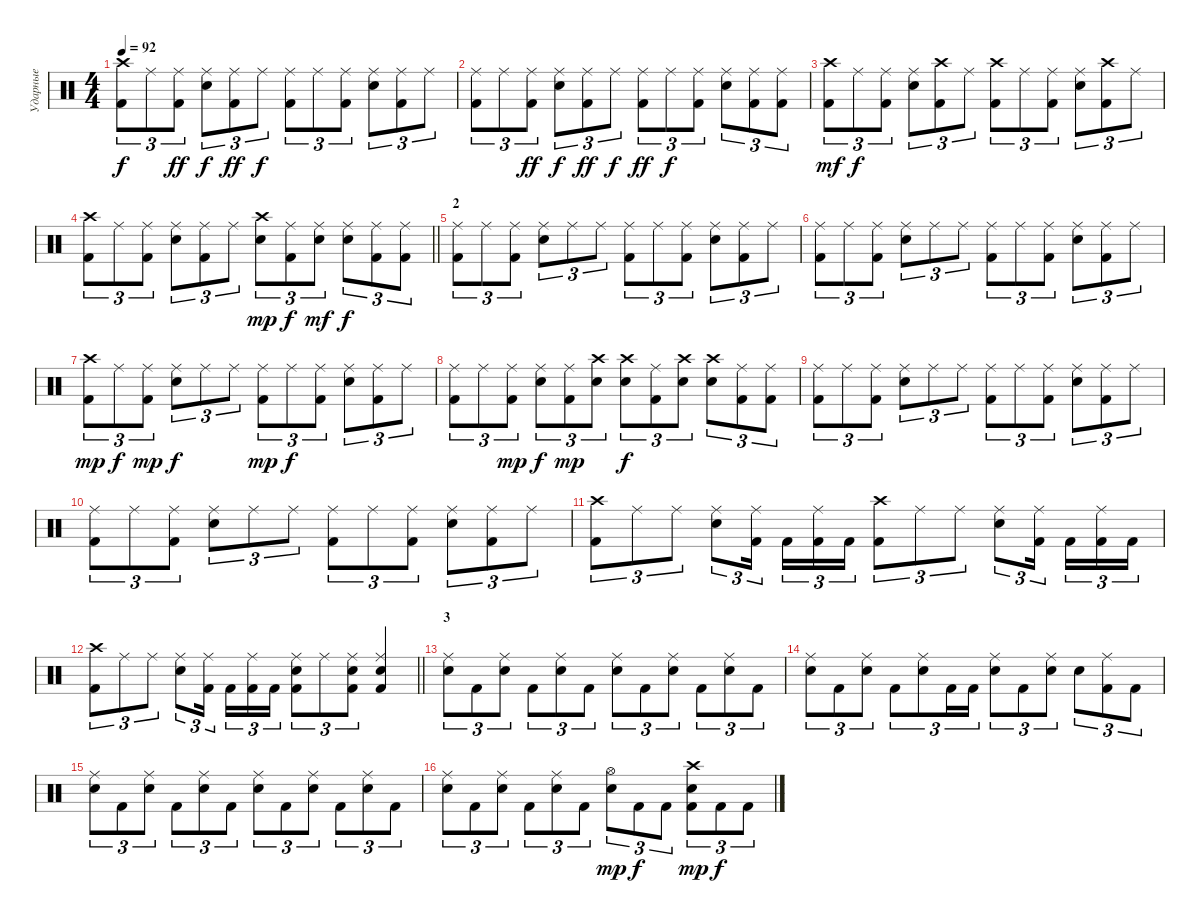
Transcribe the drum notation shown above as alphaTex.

\track ("Ударные" "Ударные") {instrument percussion}
\staff {score}
\articulation defaults
\ts (4 4)
\tempo 92
\clef neutral
\ks c
("Crash high (hit)" "Kick (hit) 2").8{tu (3 2) dy f} "Ride (middle)".8{tu (3 2)} ("Ride (middle)" "Kick (hit) 2").8{tu (3 2) dy ff} ("Ride (middle)" "Electric Snare (hit)").8{tu (3 2) dy f} ("Ride (middle)" "Kick (hit) 2").8{tu (3 2) dy ff} "Ride (middle)".8{tu (3 2) dy f} ("Ride (middle)" "Kick (hit) 2").8{tu (3 2)} "Ride (middle)".8{tu (3 2)} ("Ride (middle)" "Kick (hit) 2").8{tu (3 2)} ("Ride (middle)" "Electric Snare (hit)").8{tu (3 2)} ("Ride (middle)" "Kick (hit) 2").8{tu (3 2)} "Ride (middle)".8{tu (3 2)} |
("Ride (middle)" "Kick (hit) 2").8{tu (3 2)} "Ride (middle)".8{tu (3 2)} ("Ride (middle)" "Kick (hit) 2").8{tu (3 2) dy ff} ("Ride (middle)" "Electric Snare (hit)").8{tu (3 2) dy f} ("Ride (middle)" "Kick (hit) 2").8{tu (3 2) dy ff} "Ride (middle)".8{tu (3 2) dy f} ("Ride (middle)" "Kick (hit) 2").8{tu (3 2) dy ff} "Ride (middle)".8{tu (3 2) dy f} ("Ride (middle)" "Kick (hit) 2").8{tu (3 2)} ("Ride (middle)" "Electric Snare (hit)").8{tu (3 2)} ("Ride (middle)" "Kick (hit) 2").8{tu (3 2)} ("Ride (middle)" "Kick (hit) 2").8{tu (3 2)} |
("Crash high (hit)" "Kick (hit) 2").8{tu (3 2) dy mf} "Ride (middle)".8{tu (3 2) dy f} ("Ride (middle)" "Kick (hit) 2").8{tu (3 2)} ("Ride (middle)" "Electric Snare (hit)").8{tu (3 2)} ("Crash high (hit)" "Kick (hit) 2").8{tu (3 2)} "Ride (middle)".8{tu (3 2)} ("Crash high (hit)" "Kick (hit) 2").8{tu (3 2)} "Ride (middle)".8{tu (3 2)} ("Ride (middle)" "Kick (hit) 2").8{tu (3 2)} ("Ride (middle)" "Electric Snare (hit)").8{tu (3 2)} ("Crash high (hit)" "Kick (hit) 2").8{tu (3 2)} "Ride (middle)".8{tu (3 2)} |
\barLineRight lightlight
("Crash high (hit)" "Kick (hit) 2").8{tu (3 2)} "Ride (middle)".8{tu (3 2)} ("Ride (middle)" "Kick (hit) 2").8{tu (3 2)} ("Ride (middle)" "Electric Snare (hit)").8{tu (3 2)} ("Ride (middle)" "Kick (hit) 2").8{tu (3 2)} "Ride (middle)".8{tu (3 2)} ("Crash high (hit)" "Electric Snare (hit)").8{tu (3 2) dy mp} ("Ride (middle)" "Kick (hit) 2").8{tu (3 2) dy f} ("Ride (middle)" "Electric Snare (hit)").8{tu (3 2) dy mf} ("Ride (middle)" "Electric Snare (hit)").8{tu (3 2) dy f} ("Ride (middle)" "Kick (hit) 2").8{tu (3 2)} ("Ride (middle)" "Kick (hit) 2").8{tu (3 2)} |
\section ("" "2")
("Ride (middle)" "Kick (hit) 2").8{tu (3 2)} "Ride (middle)".8{tu (3 2)} ("Ride (middle)" "Kick (hit) 2").8{tu (3 2)} ("Ride (middle)" "Electric Snare (hit)").8{tu (3 2)} "Ride (middle)".8{tu (3 2)} "Ride (middle)".8{tu (3 2)} ("Ride (middle)" "Kick (hit) 2").8{tu (3 2)} "Ride (middle)".8{tu (3 2)} ("Ride (middle)" "Kick (hit) 2").8{tu (3 2)} ("Ride (middle)" "Electric Snare (hit)").8{tu (3 2)} ("Ride (middle)" "Kick (hit) 2").8{tu (3 2)} "Ride (middle)".8{tu (3 2)} |
("Ride (middle)" "Kick (hit) 2").8{tu (3 2)} "Ride (middle)".8{tu (3 2)} ("Ride (middle)" "Kick (hit) 2").8{tu (3 2)} ("Ride (middle)" "Electric Snare (hit)").8{tu (3 2)} "Ride (middle)".8{tu (3 2)} "Ride (middle)".8{tu (3 2)} ("Ride (middle)" "Kick (hit) 2").8{tu (3 2)} "Ride (middle)".8{tu (3 2)} ("Ride (middle)" "Kick (hit) 2").8{tu (3 2)} ("Ride (middle)" "Electric Snare (hit)").8{tu (3 2)} ("Ride (middle)" "Kick (hit) 2").8{tu (3 2)} "Ride (middle)".8{tu (3 2)} |
("Crash high (hit)" "Kick (hit) 2").8{tu (3 2) dy mp} "Ride (middle)".8{tu (3 2) dy f} ("Ride (middle)" "Kick (hit) 2").8{tu (3 2) dy mp} ("Ride (middle)" "Electric Snare (hit)").8{tu (3 2) dy f} "Ride (middle)".8{tu (3 2)} "Ride (middle)".8{tu (3 2)} ("Ride (middle)" "Kick (hit) 2").8{tu (3 2) dy mp} "Ride (middle)".8{tu (3 2) dy f} ("Ride (middle)" "Kick (hit) 2").8{tu (3 2)} ("Ride (middle)" "Electric Snare (hit)").8{tu (3 2)} ("Ride (middle)" "Kick (hit) 2").8{tu (3 2)} "Ride (middle)".8{tu (3 2)} |
("Ride (middle)" "Kick (hit) 2").8{tu (3 2)} "Ride (middle)".8{tu (3 2)} ("Ride (middle)" "Kick (hit) 2").8{tu (3 2) dy mp} ("Ride (middle)" "Electric Snare (hit)").8{tu (3 2) dy f} ("Ride (middle)" "Kick (hit) 2").8{tu (3 2) dy mp} ("Crash high (hit)" "Electric Snare (hit)").8{tu (3 2)} ("Crash high (hit)" "Electric Snare (hit)").8{tu (3 2) dy f} ("Ride (middle)" "Kick (hit) 2").8{tu (3 2)} ("Crash high (hit)" "Electric Snare (hit)").8{tu (3 2)} ("Crash high (hit)" "Electric Snare (hit)").8{tu (3 2)} ("Ride (middle)" "Kick (hit) 2").8{tu (3 2)} ("Ride (middle)" "Kick (hit) 2").8{tu (3 2)} |
("Ride (middle)" "Kick (hit) 2").8{tu (3 2)} "Ride (middle)".8{tu (3 2)} ("Ride (middle)" "Kick (hit) 2").8{tu (3 2)} ("Ride (middle)" "Electric Snare (hit)").8{tu (3 2)} "Ride (middle)".8{tu (3 2)} "Ride (middle)".8{tu (3 2)} ("Ride (middle)" "Kick (hit) 2").8{tu (3 2)} "Ride (middle)".8{tu (3 2)} ("Ride (middle)" "Kick (hit) 2").8{tu (3 2)} ("Ride (middle)" "Electric Snare (hit)").8{tu (3 2)} ("Ride (middle)" "Kick (hit) 2").8{tu (3 2)} "Ride (middle)".8{tu (3 2)} |
("Ride (middle)" "Kick (hit) 2").8{tu (3 2)} "Ride (middle)".8{tu (3 2)} ("Ride (middle)" "Kick (hit) 2").8{tu (3 2)} ("Ride (middle)" "Electric Snare (hit)").8{tu (3 2)} "Ride (middle)".8{tu (3 2)} "Ride (middle)".8{tu (3 2)} ("Ride (middle)" "Kick (hit) 2").8{tu (3 2)} "Ride (middle)".8{tu (3 2)} ("Ride (middle)" "Kick (hit) 2").8{tu (3 2)} ("Ride (middle)" "Electric Snare (hit)").8{tu (3 2)} ("Ride (middle)" "Kick (hit) 2").8{tu (3 2)} "Ride (middle)".8{tu (3 2)} |
("Crash high (hit)" "Kick (hit) 2").8{tu (3 2)} "Ride (middle)".8{tu (3 2)} "Ride (middle)".8{tu (3 2)} ("Ride (middle)" "Electric Snare (hit)").8{tu (3 2)} ("Ride (middle)" "Kick (hit) 2").16{tu (3 2) beam splitsecondary} "Kick (hit) 2".16{tu (3 2)} ("Ride (middle)" "Kick (hit) 2").16{tu (3 2)} "Kick (hit) 2".16{tu (3 2)} ("Crash high (hit)" "Kick (hit) 2").8{tu (3 2)} "Ride (middle)".8{tu (3 2)} "Ride (middle)".8{tu (3 2)} ("Ride (middle)" "Electric Snare (hit)").8{tu (3 2)} ("Ride (middle)" "Kick (hit) 2").16{tu (3 2) beam splitsecondary} "Kick (hit) 2".16{tu (3 2)} ("Ride (middle)" "Kick (hit) 2").16{tu (3 2)} "Kick (hit) 2".16{tu (3 2)} |
\barLineRight lightlight
("Crash high (hit)" "Kick (hit) 2").8{tu (3 2)} "Ride (middle)".8{tu (3 2)} "Ride (middle)".8{tu (3 2)} ("Ride (middle)" "Electric Snare (hit)").8{tu (3 2)} ("Ride (middle)" "Kick (hit) 2").16{tu (3 2) beam splitsecondary} "Kick (hit) 2".16{tu (3 2)} ("Ride (middle)" "Kick (hit) 2").16{tu (3 2)} "Kick (hit) 2".16{tu (3 2)} ("Ride (middle)" "Electric Snare (hit)" "Kick (hit) 2").8{tu (3 2)} "Ride (middle)".8{tu (3 2)} ("Ride (middle)" "Electric Snare (hit)" "Kick (hit) 2").8{tu (3 2)} ("Ride (middle)" "Electric Snare (hit)" "Kick (hit) 2").4 |
\section ("" "3")
("Ride (middle)" "Electric Snare (hit)").8{tu (3 2)} "Kick (hit) 2".8{tu (3 2)} ("Ride (middle)" "Electric Snare (hit)").8{tu (3 2)} "Kick (hit) 2".8{tu (3 2)} ("Ride (middle)" "Electric Snare (hit)").8{tu (3 2)} "Kick (hit) 2".8{tu (3 2)} ("Ride (middle)" "Electric Snare (hit)").8{tu (3 2)} "Kick (hit) 2".8{tu (3 2)} ("Ride (middle)" "Electric Snare (hit)").8{tu (3 2)} "Kick (hit) 2".8{tu (3 2)} ("Ride (middle)" "Electric Snare (hit)").8{tu (3 2)} "Kick (hit) 2".8{tu (3 2)} |
("Ride (middle)" "Electric Snare (hit)").8{tu (3 2)} "Kick (hit) 2".8{tu (3 2)} ("Ride (middle)" "Electric Snare (hit)").8{tu (3 2)} "Kick (hit) 2".8{tu (3 2)} ("Ride (middle)" "Electric Snare (hit)").8{tu (3 2)} "Kick (hit) 2".16{tu (3 2)} "Kick (hit) 2".16{tu (3 2)} ("Ride (middle)" "Electric Snare (hit)").8{tu (3 2)} "Kick (hit) 2".8{tu (3 2)} ("Ride (middle)" "Electric Snare (hit)").8{tu (3 2)} "Electric Snare (hit)".8{tu (3 2)} ("Ride (middle)" "Kick (hit) 2").8{tu (3 2)} "Kick (hit) 2".8{tu (3 2)} |
("Ride (middle)" "Electric Snare (hit)").8{tu (3 2)} "Kick (hit) 2".8{tu (3 2)} ("Ride (middle)" "Electric Snare (hit)").8{tu (3 2)} "Kick (hit) 2".8{tu (3 2)} ("Ride (middle)" "Electric Snare (hit)").8{tu (3 2)} "Kick (hit) 2".8{tu (3 2)} ("Ride (middle)" "Electric Snare (hit)").8{tu (3 2)} "Kick (hit) 2".8{tu (3 2)} ("Ride (middle)" "Electric Snare (hit)").8{tu (3 2)} "Kick (hit) 2".8{tu (3 2)} ("Ride (middle)" "Electric Snare (hit)").8{tu (3 2)} "Kick (hit) 2".8{tu (3 2)} |
("Ride (middle)" "Electric Snare (hit)").8{tu (3 2)} "Kick (hit) 2".8{tu (3 2)} ("Ride (middle)" "Electric Snare (hit)").8{tu (3 2)} "Kick (hit) 2".8{tu (3 2)} ("Ride (middle)" "Electric Snare (hit)").8{tu (3 2)} "Kick (hit) 2".8{tu (3 2)} ("Hi-Hat (open)" "Electric Snare (hit)").8{tu (3 2) dy mp} "Kick (hit) 2".8{tu (3 2) dy f} "Kick (hit) 2".8{tu (3 2)} ("Crash high (hit)" "Electric Snare (hit)" "Kick (hit) 2").8{tu (3 2) dy mp} "Kick (hit) 2".8{tu (3 2) dy f} "Kick (hit) 2".8{tu (3 2)}
